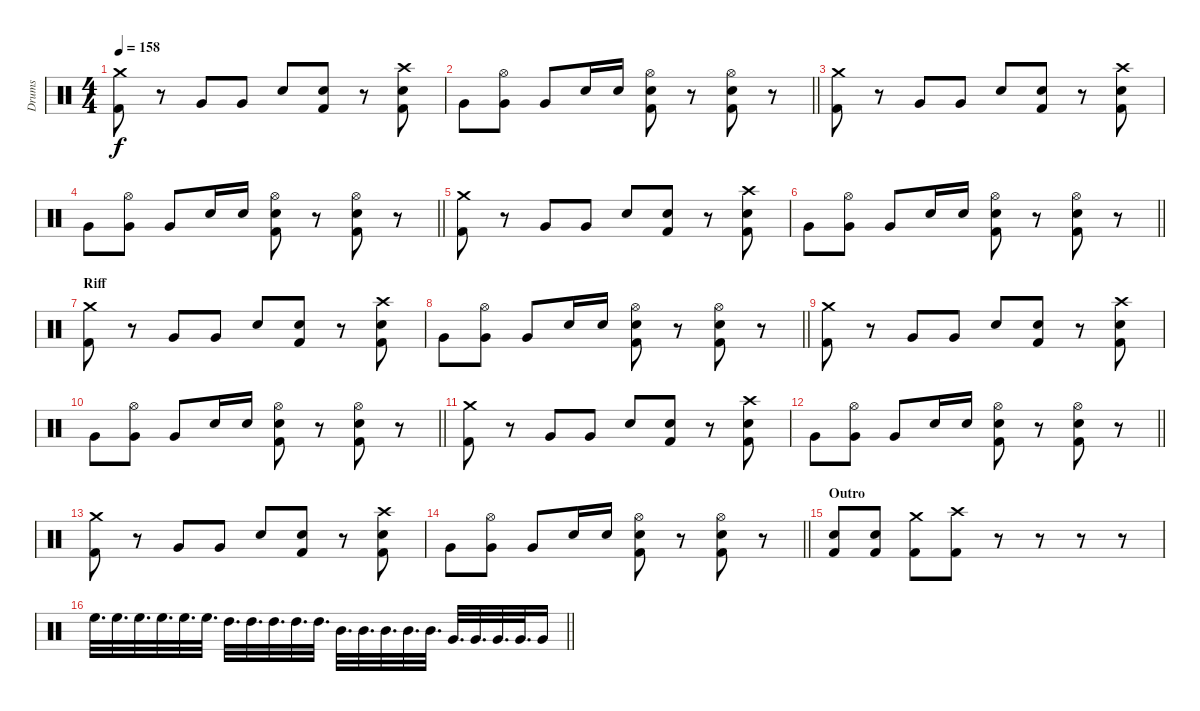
\track ("Drums" "Drums") {instrument percussion}
\staff
\articulation defaults
\ts (4 4)
\tempo 158
\clef neutral
\ks c
("Crash medium (hit)" "Kick (hit) 2").8{dy f} r.8 "Very Low Tom (hit)".8 "Very Low Tom (hit)".8 "Electric Snare (hit)".8 ("Electric Snare (hit)" "Kick (hit) 2").8 r.8 ("Crash high (hit)" "Electric Snare (hit)" "Kick (hit) 2").8 |
\barLineRight lightlight "Very Low Tom (hit)".8
("Hi-Hat (open)" "Very Low Tom (hit)").8 "Very Low Tom (hit)".8 "Electric Snare (hit)".16 "Electric Snare (hit)".16 ("Hi-Hat (open)" "Electric Snare (hit)" "Kick (hit) 2").8 r.8 ("Hi-Hat (open)" "Electric Snare (hit)" "Kick (hit) 2").8 r.8 |
("Crash medium (hit)" "Kick (hit) 2").8 r.8 "Very Low Tom (hit)".8 "Very Low Tom (hit)".8 "Electric Snare (hit)".8 ("Electric Snare (hit)" "Kick (hit) 2").8 r.8 ("Crash high (hit)" "Electric Snare (hit)" "Kick (hit) 2").8 |
\barLineRight lightlight "Very Low Tom (hit)".8
("Hi-Hat (open)" "Very Low Tom (hit)").8 "Very Low Tom (hit)".8 "Electric Snare (hit)".16 "Electric Snare (hit)".16 ("Hi-Hat (open)" "Electric Snare (hit)" "Kick (hit) 2").8 r.8 ("Hi-Hat (open)" "Electric Snare (hit)" "Kick (hit) 2").8 r.8 |
("Crash medium (hit)" "Kick (hit) 2").8 r.8 "Very Low Tom (hit)".8 "Very Low Tom (hit)".8 "Electric Snare (hit)".8 ("Electric Snare (hit)" "Kick (hit) 2").8 r.8 ("Crash high (hit)" "Electric Snare (hit)" "Kick (hit) 2").8 |
\barLineRight lightlight "Very Low Tom (hit)".8
("Hi-Hat (open)" "Very Low Tom (hit)").8 "Very Low Tom (hit)".8 "Electric Snare (hit)".16 "Electric Snare (hit)".16 ("Hi-Hat (open)" "Electric Snare (hit)" "Kick (hit) 2").8 r.8 ("Hi-Hat (open)" "Electric Snare (hit)" "Kick (hit) 2").8 r.8 |
\section ("" "Riff")
("Crash medium (hit)" "Kick (hit) 2").8 r.8 "Very Low Tom (hit)".8 "Very Low Tom (hit)".8 "Electric Snare (hit)".8 ("Electric Snare (hit)" "Kick (hit) 2").8 r.8 ("Crash high (hit)" "Electric Snare (hit)" "Kick (hit) 2").8 |
\barLineRight lightlight "Very Low Tom (hit)".8
("Hi-Hat (open)" "Very Low Tom (hit)").8 "Very Low Tom (hit)".8 "Electric Snare (hit)".16 "Electric Snare (hit)".16 ("Hi-Hat (open)" "Electric Snare (hit)" "Kick (hit) 2").8 r.8 ("Hi-Hat (open)" "Electric Snare (hit)" "Kick (hit) 2").8 r.8 |
("Crash medium (hit)" "Kick (hit) 2").8 r.8 "Very Low Tom (hit)".8 "Very Low Tom (hit)".8 "Electric Snare (hit)".8 ("Electric Snare (hit)" "Kick (hit) 2").8 r.8 ("Crash high (hit)" "Electric Snare (hit)" "Kick (hit) 2").8 |
\barLineRight lightlight "Very Low Tom (hit)".8
("Hi-Hat (open)" "Very Low Tom (hit)").8 "Very Low Tom (hit)".8 "Electric Snare (hit)".16 "Electric Snare (hit)".16 ("Hi-Hat (open)" "Electric Snare (hit)" "Kick (hit) 2").8 r.8 ("Hi-Hat (open)" "Electric Snare (hit)" "Kick (hit) 2").8 r.8 |
("Crash medium (hit)" "Kick (hit) 2").8 r.8 "Very Low Tom (hit)".8 "Very Low Tom (hit)".8 "Electric Snare (hit)".8 ("Electric Snare (hit)" "Kick (hit) 2").8 r.8 ("Crash high (hit)" "Electric Snare (hit)" "Kick (hit) 2").8 |
\barLineRight lightlight "Very Low Tom (hit)".8
("Hi-Hat (open)" "Very Low Tom (hit)").8 "Very Low Tom (hit)".8 "Electric Snare (hit)".16 "Electric Snare (hit)".16 ("Hi-Hat (open)" "Electric Snare (hit)" "Kick (hit) 2").8 r.8 ("Hi-Hat (open)" "Electric Snare (hit)" "Kick (hit) 2").8 r.8 |
("Crash medium (hit)" "Kick (hit) 2").8 r.8 "Very Low Tom (hit)".8 "Very Low Tom (hit)".8 "Electric Snare (hit)".8 ("Electric Snare (hit)" "Kick (hit) 2").8 r.8 ("Crash high (hit)" "Electric Snare (hit)" "Kick (hit) 2").8 |
\barLineRight lightlight "Very Low Tom (hit)".8
("Hi-Hat (open)" "Very Low Tom (hit)").8 "Very Low Tom (hit)".8 "Electric Snare (hit)".16 "Electric Snare (hit)".16 ("Hi-Hat (open)" "Electric Snare (hit)" "Kick (hit) 2").8 r.8 ("Hi-Hat (open)" "Electric Snare (hit)" "Kick (hit) 2").8 r.8 |
\section ("" "Outro")
("Electric Snare (hit)" "Kick (hit) 2").8 ("Electric Snare (hit)" "Kick (hit) 2").8 ("Crash medium (hit)" "Kick (hit) 2").8 ("Crash high (hit)" "Kick (hit) 2").8 r.8 r.8 r.8 r.8 |
\barLineRight lightlight "High Floor Tom (hit)".32{d} "High Floor Tom (hit)".32{d} "High Floor Tom (hit)".32{d} "High Floor Tom (hit)".32{d} "High Floor Tom (hit)".32{d} "High Floor Tom (hit)".32{d} "High Tom (hit)".32{d} "High Tom (hit)".32{d} "High Tom (hit)".32{d} "High Tom (hit)".32{d} "High Tom (hit)".32{d} "Mid Tom (hit)".32{d} "Mid Tom (hit)".32{d} "Mid Tom (hit)".32{d} "Mid Tom (hit)".32{d} "Mid Tom (hit)".32{d} "Very Low Tom (hit)".32{d} "Very Low Tom (hit)".32{d} "Very Low Tom (hit)".32{d} "Very Low Tom (hit)".32{d} "Very Low Tom (hit)".16
